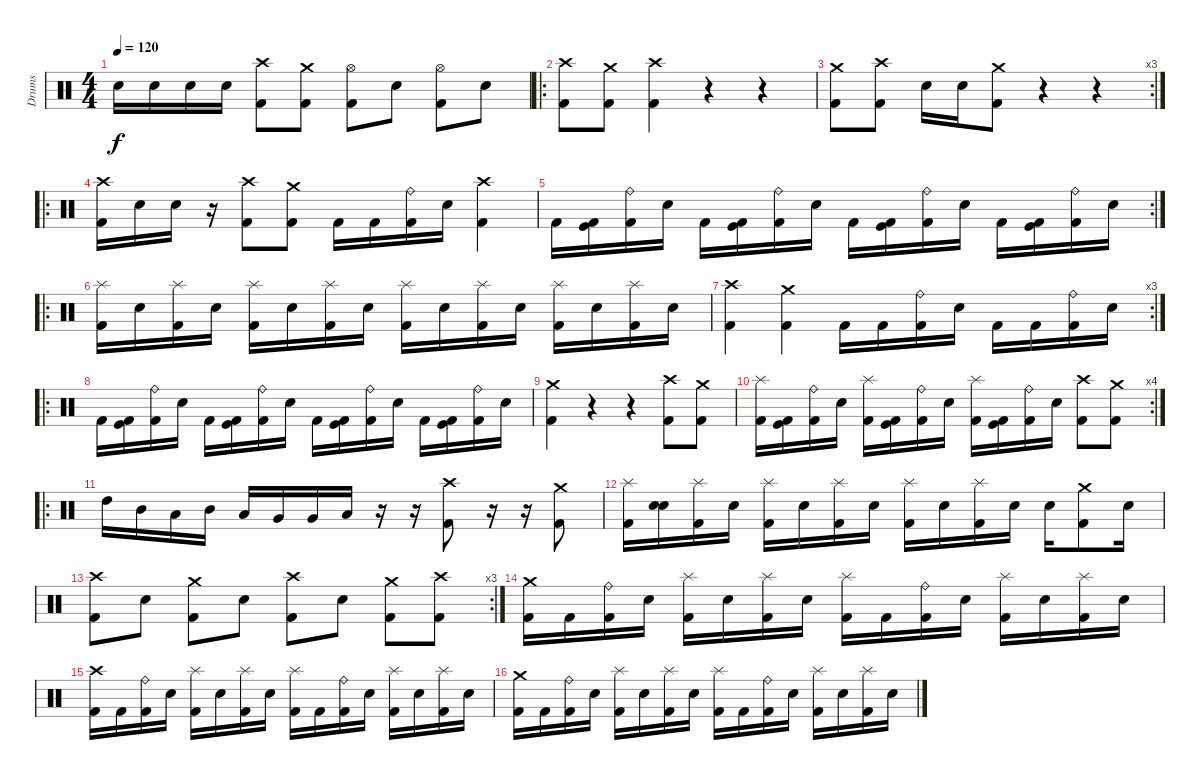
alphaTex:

\track ("Drums" "Drums") {instrument percussion}
\staff {score}
\articulation defaults
\ts (4 4)
\tempo 120
\clef neutral
\ks c "Electric Snare (hit)".16{dy f} "Electric Snare (hit)".16 "Electric Snare (hit)".16 "Electric Snare (hit)".16
("Crash high (hit)" "Kick (hit) 2").8 ("Crash medium (hit)" "Kick (hit) 2").8 ("Hi-Hat (open)" "Kick (hit) 2").8 "Electric Snare (hit)".8 ("Hi-Hat (open)" "Kick (hit) 2").8 "Electric Snare (hit)".8 |
\ro
("Crash high (hit)" "Kick (hit) 2").8 ("Crash medium (hit)" "Kick (hit) 2").8 ("Crash high (hit)" "Kick (hit) 2").4 r.4 r.4 |
\rc 3
("Crash medium (hit)" "Kick (hit) 2").8 ("Crash high (hit)" "Kick (hit) 2").8 "Electric Snare (hit)".16 "Electric Snare (hit)".16 ("Crash medium (hit)" "Kick (hit) 2").8 r.4 r.4 |
\ro
("Crash high (hit)" "Kick (hit) 2").16 "Electric Snare (hit)".16 "Electric Snare (hit)".16 r.16 ("Crash high (hit)" "Kick (hit) 2").8 ("Crash medium (hit)" "Kick (hit) 2").8 "Kick (hit) 2".16 "Kick (hit) 2".16 ("Ride (bell)" "Kick (hit) 2").16 "Electric Snare (hit)".16 ("Crash high (hit)" "Kick (hit) 2").4 |
\rc 2 "Kick (hit) 2".16
("Kick (hit) 2" "Kick (hit)").16 ("Ride (bell)" "Kick (hit) 2").16 "Electric Snare (hit)".16 "Kick (hit) 2".16 ("Kick (hit) 2" "Kick (hit)").16 ("Ride (bell)" "Kick (hit) 2").16 "Electric Snare (hit)".16 "Kick (hit) 2".16 ("Kick (hit) 2" "Kick (hit)").16 ("Ride (bell)" "Kick (hit) 2").16 "Electric Snare (hit)".16 "Kick (hit) 2".16 ("Kick (hit) 2" "Kick (hit)").16 ("Ride (bell)" "Kick (hit) 2").16 "Electric Snare (hit)".16 |
\ro
("Splash (hit)" "Kick (hit) 2").16 "Electric Snare (hit)".16 ("Splash (hit)" "Kick (hit) 2").16 "Electric Snare (hit)".16 ("Splash (hit)" "Kick (hit) 2").16 "Electric Snare (hit)".16 ("Splash (hit)" "Kick (hit) 2").16 "Electric Snare (hit)".16 ("Splash (hit)" "Kick (hit) 2").16 "Electric Snare (hit)".16 ("Splash (hit)" "Kick (hit) 2").16 "Electric Snare (hit)".16 ("Splash (hit)" "Kick (hit) 2").16 "Electric Snare (hit)".16 ("Splash (hit)" "Kick (hit) 2").16 "Electric Snare (hit)".16 |
\rc 3
("Crash high (hit)" "Kick (hit) 2").4 ("Crash medium (hit)" "Kick (hit) 2").4 "Kick (hit) 2".16 "Kick (hit) 2".16 ("Ride (bell)" "Kick (hit) 2").16 "Electric Snare (hit)".16 "Kick (hit) 2".16 "Kick (hit) 2".16 ("Ride (bell)" "Kick (hit) 2").16 "Electric Snare (hit)".16 |
\ro "Kick (hit) 2".16
("Kick (hit) 2" "Kick (hit)").16 ("Ride (bell)" "Kick (hit) 2").16 "Electric Snare (hit)".16 "Kick (hit) 2".16 ("Kick (hit) 2" "Kick (hit)").16 ("Ride (bell)" "Kick (hit) 2").16 "Electric Snare (hit)".16 "Kick (hit) 2".16 ("Kick (hit) 2" "Kick (hit)").16 ("Ride (bell)" "Kick (hit) 2").16 "Electric Snare (hit)".16 "Kick (hit) 2".16 ("Kick (hit) 2" "Kick (hit)").16 ("Ride (bell)" "Kick (hit) 2").16 "Electric Snare (hit)".16 |
("Crash medium (hit)" "Kick (hit) 2").4 r.4 r.4 ("Crash high (hit)" "Kick (hit) 2").8 ("Crash medium (hit)" "Kick (hit) 2").8 |
\rc 4
("Splash (hit)" "Kick (hit) 2").16 ("Kick (hit) 2" "Kick (hit)").16 ("Ride (bell)" "Kick (hit) 2").16 "Electric Snare (hit)".16 ("Splash (hit)" "Kick (hit) 2").16 ("Kick (hit) 2" "Kick (hit)").16 ("Ride (bell)" "Kick (hit) 2").16 "Electric Snare (hit)".16 ("Splash (hit)" "Kick (hit) 2").16 ("Kick (hit) 2" "Kick (hit)").16 ("Ride (bell)" "Kick (hit) 2").16 "Electric Snare (hit)".16 ("Crash high (hit)" "Kick (hit) 2").8 ("Crash medium (hit)" "Kick (hit) 2").8 |
\ro "High Tom (hit)".16 "Mid Tom (hit)".16 "Low Tom (hit)".16 "Mid Tom (hit)".16 "Low Tom (hit)".16 "Very Low Tom (hit)".16 "Very Low Tom (hit)".16 "Low Floor Tom (hit)".16
r.16 r.16 ("Crash high (hit)" "Kick (hit) 2").8 r.16 r.16 ("Crash medium (hit)" "Kick (hit) 2").8 |
("Splash (hit)" "Kick (hit) 2").16 ("Snare (hit)" "Electric Snare (hit)").16 ("Splash (hit)" "Kick (hit) 2").16 "Electric Snare (hit)".16 ("Splash (hit)" "Kick (hit) 2").16 "Electric Snare (hit)".16 ("Splash (hit)" "Kick (hit) 2").16 "Electric Snare (hit)".16 ("Splash (hit)" "Kick (hit) 2").16 "Electric Snare (hit)".16 ("Splash (hit)" "Kick (hit) 2").16 "Electric Snare (hit)".16 "Electric Snare (hit)".16 ("Crash medium (hit)" "Kick (hit) 2").8 "Electric Snare (hit)".16 |
\rc 3
("Crash high (hit)" "Kick (hit) 2").8 "Electric Snare (hit)".8 ("Crash medium (hit)" "Kick (hit) 2").8 "Electric Snare (hit)".8 ("Crash high (hit)" "Kick (hit) 2").8 "Electric Snare (hit)".8 ("Crash medium (hit)" "Kick (hit) 2").8 ("Crash high (hit)" "Kick (hit) 2").8 |
("Crash medium (hit)" "Kick (hit) 2").16 "Kick (hit) 2".16 ("Ride (bell)" "Kick (hit) 2").16 "Electric Snare (hit)".16 ("Splash (hit)" "Kick (hit) 2").16 "Electric Snare (hit)".16 ("Splash (hit)" "Kick (hit) 2").16 "Electric Snare (hit)".16 ("Splash (hit)" "Kick (hit) 2").16 "Kick (hit) 2".16 ("Ride (bell)" "Kick (hit) 2").16 "Electric Snare (hit)".16 ("Splash (hit)" "Kick (hit) 2").16 "Electric Snare (hit)".16 ("Splash (hit)" "Kick (hit) 2").16 "Electric Snare (hit)".16 |
("Crash high (hit)" "Kick (hit) 2").16 "Kick (hit) 2".16 ("Ride (bell)" "Kick (hit) 2").16 "Electric Snare (hit)".16 ("Splash (hit)" "Kick (hit) 2").16 "Electric Snare (hit)".16 ("Splash (hit)" "Kick (hit) 2").16 "Electric Snare (hit)".16 ("Splash (hit)" "Kick (hit) 2").16 "Kick (hit) 2".16 ("Ride (bell)" "Kick (hit) 2").16 "Electric Snare (hit)".16 ("Splash (hit)" "Kick (hit) 2").16 "Electric Snare (hit)".16 ("Splash (hit)" "Kick (hit) 2").16 "Electric Snare (hit)".16 |
("Crash medium (hit)" "Kick (hit) 2").16 "Kick (hit) 2".16 ("Ride (bell)" "Kick (hit) 2").16 "Electric Snare (hit)".16 ("Splash (hit)" "Kick (hit) 2").16 "Electric Snare (hit)".16 ("Splash (hit)" "Kick (hit) 2").16 "Electric Snare (hit)".16 ("Splash (hit)" "Kick (hit) 2").16 "Kick (hit) 2".16 ("Ride (bell)" "Kick (hit) 2").16 "Electric Snare (hit)".16 ("Splash (hit)" "Kick (hit) 2").16 "Electric Snare (hit)".16 ("Splash (hit)" "Kick (hit) 2").16 "Electric Snare (hit)".16
